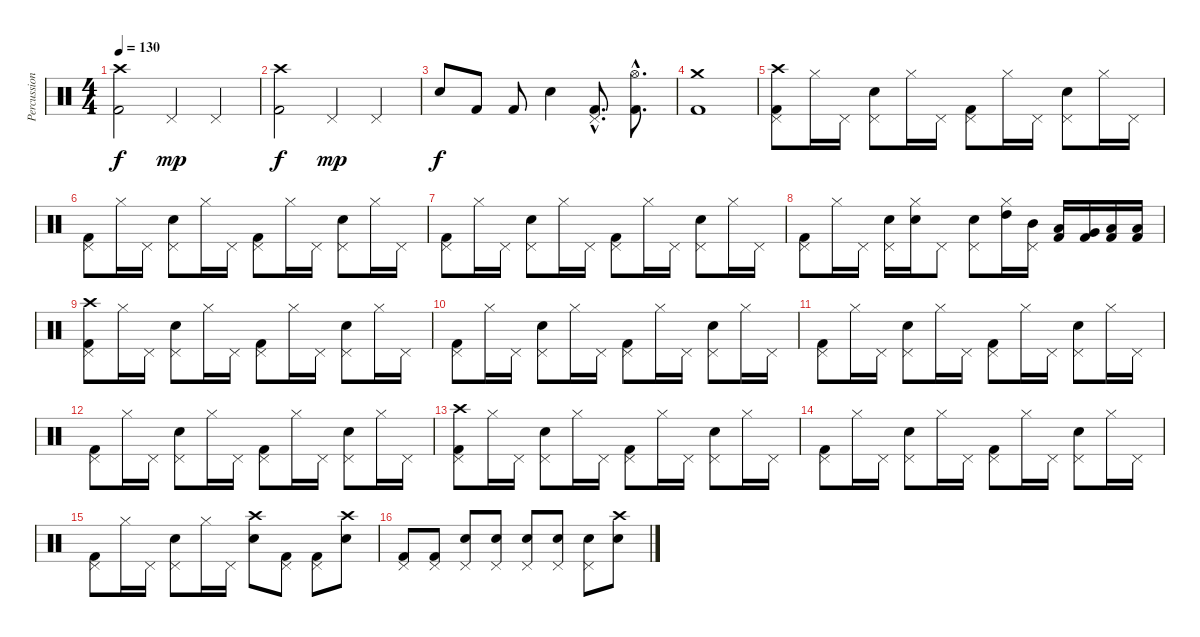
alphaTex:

\track ("Percussion" "Percussion") {instrument percussion}
\staff {score}
\articulation defaults
\ts (4 4)
\tempo 130
\clef neutral
\ks c
("Crash high (hit)" "Kick (hit) 2").2{dy f} "Pedal Hi-Hat (hit)".4{dy mp} "Pedal Hi-Hat (hit)".4 |
("Crash high (hit)" "Kick (hit) 2").2{dy f} "Pedal Hi-Hat (hit)".4{dy mp} "Pedal Hi-Hat (hit)".4 |
"Snare (hit) 2".8{dy f} "Kick (hit) 2".8 "Kick (hit) 2".8 "Snare (hit) 2".4 ("Kick (hit) 2"{hac} "Pedal Hi-Hat (hit)"{hac}).8{d} ("Kick (hit) 2"{hac} "Hi-Hat (open)"{hac}).8{d} |
("Kick (hit) 2" "Crash medium (hit)").1 |
("Crash high (hit)" "Pedal Hi-Hat (hit)" "Kick (hit) 2").8 "Hi-Hat (closed)".16 "Pedal Hi-Hat (hit)".16 ("Pedal Hi-Hat (hit)" "Snare (hit) 2").8 "Hi-Hat (closed)".16 "Pedal Hi-Hat (hit)".16 ("Pedal Hi-Hat (hit)" "Kick (hit) 2").8 "Hi-Hat (closed)".16 "Pedal Hi-Hat (hit)".16 ("Pedal Hi-Hat (hit)" "Snare (hit) 2").8 "Hi-Hat (closed)".16 "Pedal Hi-Hat (hit)".16 |
("Pedal Hi-Hat (hit)" "Kick (hit) 2").8 "Hi-Hat (closed)".16 "Pedal Hi-Hat (hit)".16 ("Pedal Hi-Hat (hit)" "Snare (hit) 2").8 "Hi-Hat (closed)".16 "Pedal Hi-Hat (hit)".16 ("Pedal Hi-Hat (hit)" "Kick (hit) 2").8 "Hi-Hat (closed)".16 "Pedal Hi-Hat (hit)".16 ("Pedal Hi-Hat (hit)" "Snare (hit) 2").8 "Hi-Hat (closed)".16 "Pedal Hi-Hat (hit)".16 |
("Pedal Hi-Hat (hit)" "Kick (hit) 2").8 "Hi-Hat (closed)".16 "Pedal Hi-Hat (hit)".16 ("Pedal Hi-Hat (hit)" "Snare (hit) 2").8 "Hi-Hat (closed)".16 "Pedal Hi-Hat (hit)".16 ("Pedal Hi-Hat (hit)" "Kick (hit) 2").8 "Hi-Hat (closed)".16 "Pedal Hi-Hat (hit)".16 ("Pedal Hi-Hat (hit)" "Snare (hit) 2").8 "Hi-Hat (closed)".16 "Pedal Hi-Hat (hit)".16 |
("Pedal Hi-Hat (hit)" "Kick (hit) 2").8 "Hi-Hat (closed)".16 "Pedal Hi-Hat (hit)".16 ("Pedal Hi-Hat (hit)" "Snare (hit) 2").16 ("Hi-Hat (closed)" "Snare (hit) 2").16 "Pedal Hi-Hat (hit)".8 ("Pedal Hi-Hat (hit)" "Snare (hit) 2").8 ("Hi-Hat (closed)" "High Tom (hit)").16 ("Pedal Hi-Hat (hit)" "Mid Tom (hit)").16 ("Kick (hit) 2" "Low Tom (hit)").16 ("Kick (hit) 2" "Very Low Tom (hit)").16 ("Kick (hit) 2" "Low Floor Tom (hit)").16 ("Kick (hit) 2" "Low Floor Tom (hit)").16 |
("Crash high (hit)" "Pedal Hi-Hat (hit)" "Kick (hit) 2").8 "Hi-Hat (closed)".16 "Pedal Hi-Hat (hit)".16 ("Pedal Hi-Hat (hit)" "Snare (hit) 2").8 "Hi-Hat (closed)".16 "Pedal Hi-Hat (hit)".16 ("Pedal Hi-Hat (hit)" "Kick (hit) 2").8 "Hi-Hat (closed)".16 "Pedal Hi-Hat (hit)".16 ("Pedal Hi-Hat (hit)" "Snare (hit) 2").8 "Hi-Hat (closed)".16 "Pedal Hi-Hat (hit)".16 |
("Pedal Hi-Hat (hit)" "Kick (hit) 2").8 "Hi-Hat (closed)".16 "Pedal Hi-Hat (hit)".16 ("Pedal Hi-Hat (hit)" "Snare (hit) 2").8 "Hi-Hat (closed)".16 "Pedal Hi-Hat (hit)".16 ("Pedal Hi-Hat (hit)" "Kick (hit) 2").8 "Hi-Hat (closed)".16 "Pedal Hi-Hat (hit)".16 ("Pedal Hi-Hat (hit)" "Snare (hit) 2").8 "Hi-Hat (closed)".16 "Pedal Hi-Hat (hit)".16 |
("Pedal Hi-Hat (hit)" "Kick (hit) 2").8 "Hi-Hat (closed)".16 "Pedal Hi-Hat (hit)".16 ("Pedal Hi-Hat (hit)" "Snare (hit) 2").8 "Hi-Hat (closed)".16 "Pedal Hi-Hat (hit)".16 ("Pedal Hi-Hat (hit)" "Kick (hit) 2").8 "Hi-Hat (closed)".16 "Pedal Hi-Hat (hit)".16 ("Pedal Hi-Hat (hit)" "Snare (hit) 2").8 "Hi-Hat (closed)".16 "Pedal Hi-Hat (hit)".16 |
("Pedal Hi-Hat (hit)" "Kick (hit) 2").8 "Hi-Hat (closed)".16 "Pedal Hi-Hat (hit)".16 ("Pedal Hi-Hat (hit)" "Snare (hit) 2").8 "Hi-Hat (closed)".16 "Pedal Hi-Hat (hit)".16 ("Pedal Hi-Hat (hit)" "Kick (hit) 2").8 "Hi-Hat (closed)".16 "Pedal Hi-Hat (hit)".16 ("Pedal Hi-Hat (hit)" "Snare (hit) 2").8 "Hi-Hat (closed)".16 "Pedal Hi-Hat (hit)".16 |
("Crash high (hit)" "Pedal Hi-Hat (hit)" "Kick (hit) 2").8 "Hi-Hat (closed)".16 "Pedal Hi-Hat (hit)".16 ("Pedal Hi-Hat (hit)" "Snare (hit) 2").8 "Hi-Hat (closed)".16 "Pedal Hi-Hat (hit)".16 ("Pedal Hi-Hat (hit)" "Kick (hit) 2").8 "Hi-Hat (closed)".16 "Pedal Hi-Hat (hit)".16 ("Pedal Hi-Hat (hit)" "Snare (hit) 2").8 "Hi-Hat (closed)".16 "Pedal Hi-Hat (hit)".16 |
("Pedal Hi-Hat (hit)" "Kick (hit) 2").8 "Hi-Hat (closed)".16 "Pedal Hi-Hat (hit)".16 ("Pedal Hi-Hat (hit)" "Snare (hit) 2").8 "Hi-Hat (closed)".16 "Pedal Hi-Hat (hit)".16 ("Pedal Hi-Hat (hit)" "Kick (hit) 2").8 "Hi-Hat (closed)".16 "Pedal Hi-Hat (hit)".16 ("Pedal Hi-Hat (hit)" "Snare (hit) 2").8 "Hi-Hat (closed)".16 "Pedal Hi-Hat (hit)".16 |
("Pedal Hi-Hat (hit)" "Kick (hit) 2").8 "Hi-Hat (closed)".16 "Pedal Hi-Hat (hit)".16 ("Pedal Hi-Hat (hit)" "Snare (hit) 2").8 "Hi-Hat (closed)".16 "Pedal Hi-Hat (hit)".16 ("Crash high (hit)" "Snare (hit) 2").8 ("Pedal Hi-Hat (hit)" "Kick (hit) 2").8 ("Pedal Hi-Hat (hit)" "Kick (hit) 2").8 ("Crash high (hit)" "Snare (hit) 2").8 |
("Pedal Hi-Hat (hit)" "Kick (hit) 2").8 ("Pedal Hi-Hat (hit)" "Kick (hit) 2").8 ("Pedal Hi-Hat (hit)" "Snare (hit) 2").8 ("Pedal Hi-Hat (hit)" "Snare (hit) 2").8 ("Pedal Hi-Hat (hit)" "Snare (hit) 2").8 ("Pedal Hi-Hat (hit)" "Snare (hit) 2").8 ("Pedal Hi-Hat (hit)" "Snare (hit) 2").8 ("Crash high (hit)" "Snare (hit) 2").8
